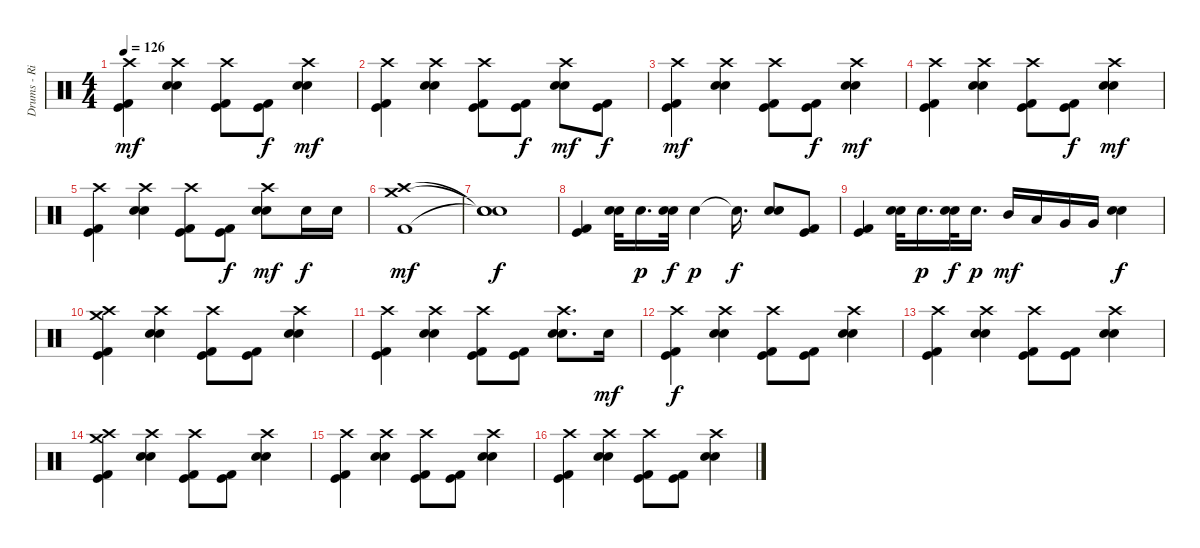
\track ("Drums - Rian" "Drums - Ri") {instrument percussion}
\staff {score}
\articulation defaults
\ts (4 4)
\tempo 126
\clef neutral
\ks c
("Kick (hit) 2" "Kick (hit)" "Crash high (hit)").4{dy mf} ("Electric Snare (hit)" "Electric Snare (hit)" "Crash high (hit)").4 ("Kick (hit) 2" "Kick (hit)" "Crash high (hit)").8 ("Kick (hit) 2" "Kick (hit)").8{dy f} ("Electric Snare (hit)" "Electric Snare (hit)" "Crash high (hit)").4{dy mf} |
("Kick (hit) 2" "Kick (hit)" "Crash high (hit)").4 ("Electric Snare (hit)" "Electric Snare (hit)" "Crash high (hit)").4 ("Kick (hit) 2" "Kick (hit)" "Crash high (hit)").8 ("Kick (hit) 2" "Kick (hit)").8{dy f} ("Electric Snare (hit)" "Electric Snare (hit)" "Crash high (hit)").8{dy mf} ("Kick (hit) 2" "Kick (hit)").8{dy f} |
("Kick (hit) 2" "Kick (hit)" "Crash high (hit)").4{dy mf} ("Electric Snare (hit)" "Electric Snare (hit)" "Crash high (hit)").4 ("Kick (hit) 2" "Kick (hit)" "Crash high (hit)").8 ("Kick (hit) 2" "Kick (hit)").8{dy f} ("Electric Snare (hit)" "Electric Snare (hit)" "Crash high (hit)").4{dy mf} |
("Kick (hit) 2" "Kick (hit)" "Crash high (hit)").4 ("Electric Snare (hit)" "Electric Snare (hit)" "Crash high (hit)").4 ("Kick (hit) 2" "Kick (hit)" "Crash high (hit)").8 ("Kick (hit) 2" "Kick (hit)").8{dy f} ("Electric Snare (hit)" "Electric Snare (hit)" "Crash high (hit)").4{dy mf} |
("Kick (hit) 2" "Kick (hit)" "Crash high (hit)").4 ("Electric Snare (hit)" "Electric Snare (hit)" "Crash high (hit)").4 ("Kick (hit) 2" "Kick (hit)" "Crash high (hit)").8 ("Kick (hit) 2" "Kick (hit)").8{dy f} ("Electric Snare (hit)" "Electric Snare (hit)" "Crash high (hit)").8{dy mf} "Electric Snare (hit)".16{dy f} "Electric Snare (hit)".16 |
("Kick (hit) 2" "Crash high (hit)" "Crash medium (hit)").1{dy mf} |
("Snare (hit)"{t} "Snare (hit)"{t} "Snare (hit)"{t}).1{dy f} |
("Kick (hit) 2" "Kick (hit)").4 ("Electric Snare (hit)" "Electric Snare (hit)").32 "Electric Snare (hit)".16{d dy p} ("Electric Snare (hit)" "Electric Snare (hit)").32{dy f} "Electric Snare (hit)".4{dy p} "Snare (hit)"{t}.16{d dy f} ("Electric Snare (hit)" "Electric Snare (hit)").8 ("Kick (hit) 2" "Kick (hit)").8 |
("Kick (hit) 2" "Kick (hit)").4 ("Electric Snare (hit)" "Electric Snare (hit)").32 "Electric Snare (hit)".16{d dy p} ("Electric Snare (hit)" "Electric Snare (hit)").32{dy f} "Electric Snare (hit)".16{d dy p} "Mid Tom (hit)".16{dy mf} "Low Tom (hit)".16 "Very Low Tom (hit)".16 "Very Low Tom (hit)".16 ("Electric Snare (hit)" "Electric Snare (hit)").4{dy f} |
("Kick (hit) 2" "Kick (hit)" "Crash high (hit)" "Crash medium (hit)").4 ("Electric Snare (hit)" "Electric Snare (hit)" "Crash high (hit)").4 ("Kick (hit) 2" "Kick (hit)" "Crash high (hit)").8 ("Kick (hit) 2" "Kick (hit)").8 ("Electric Snare (hit)" "Electric Snare (hit)" "Crash high (hit)").4 |
("Kick (hit) 2" "Kick (hit)" "Crash high (hit)").4 ("Electric Snare (hit)" "Electric Snare (hit)" "Crash high (hit)").4 ("Kick (hit) 2" "Kick (hit)" "Crash high (hit)").8 ("Kick (hit) 2" "Kick (hit)").8 ("Electric Snare (hit)" "Electric Snare (hit)" "Crash high (hit)").8{d} "Electric Snare (hit)".16{dy mf} |
("Kick (hit) 2" "Kick (hit)" "Crash high (hit)").4{dy f} ("Electric Snare (hit)" "Electric Snare (hit)" "Crash high (hit)").4 ("Kick (hit) 2" "Kick (hit)" "Crash high (hit)").8 ("Kick (hit) 2" "Kick (hit)").8 ("Electric Snare (hit)" "Electric Snare (hit)" "Crash high (hit)").4 |
("Kick (hit) 2" "Kick (hit)" "Crash high (hit)").4 ("Electric Snare (hit)" "Electric Snare (hit)" "Crash high (hit)").4 ("Kick (hit) 2" "Kick (hit)" "Crash high (hit)").8 ("Kick (hit) 2" "Kick (hit)").8 ("Electric Snare (hit)" "Electric Snare (hit)" "Crash high (hit)").4 |
("Kick (hit) 2" "Kick (hit)" "Crash high (hit)" "Crash medium (hit)").4 ("Electric Snare (hit)" "Electric Snare (hit)" "Crash high (hit)").4 ("Kick (hit) 2" "Kick (hit)" "Crash high (hit)").8 ("Kick (hit) 2" "Kick (hit)").8 ("Electric Snare (hit)" "Electric Snare (hit)" "Crash high (hit)").4 |
("Kick (hit) 2" "Kick (hit)" "Crash high (hit)").4 ("Electric Snare (hit)" "Electric Snare (hit)" "Crash high (hit)").4 ("Kick (hit) 2" "Kick (hit)" "Crash high (hit)").8 ("Kick (hit) 2" "Kick (hit)").8 ("Electric Snare (hit)" "Electric Snare (hit)" "Crash high (hit)").4 |
("Kick (hit) 2" "Kick (hit)" "Crash high (hit)").4 ("Electric Snare (hit)" "Electric Snare (hit)" "Crash high (hit)").4 ("Kick (hit) 2" "Kick (hit)" "Crash high (hit)").8 ("Kick (hit) 2" "Kick (hit)").8 ("Electric Snare (hit)" "Electric Snare (hit)" "Crash high (hit)").4
